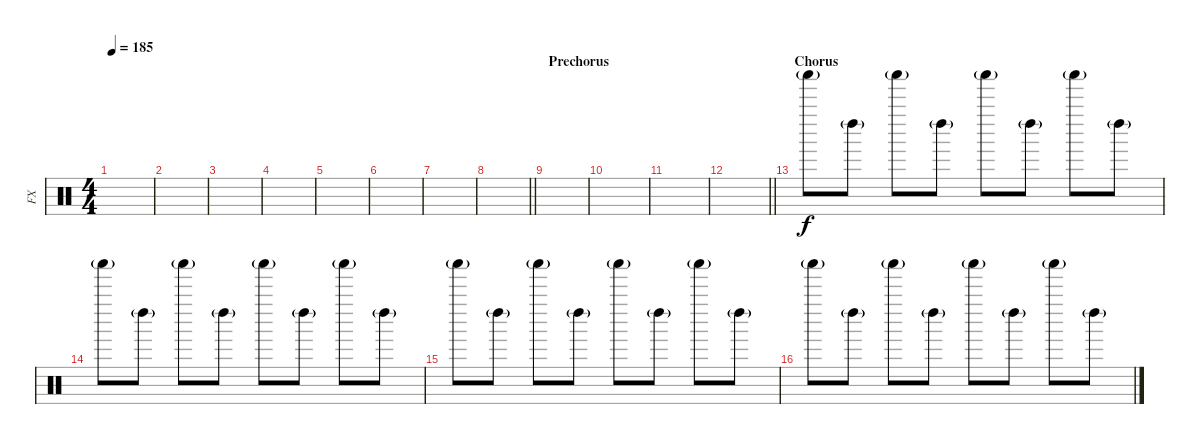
\track ("FX" "FX") {instrument percussion}
\staff {score}
\articulation defaults
\ts (4 4)
\tempo 185
\clef neutral
\ks c
|
|
|
|
|
|
|
\barLineRight lightlight
|
\section ("" "Prechorus")
|
|
|
\barLineRight lightlight
|
\section ("" "Chorus")
"Shaker (hit)"{g}.8 "Left Maraca (hit)"{g}.8 "Shaker (hit)"{g}.8 "Left Maraca (hit)"{g}.8 "Shaker (hit)"{g}.8 "Left Maraca (hit)"{g}.8 "Shaker (hit)"{g}.8 "Left Maraca (hit)"{g}.8 |
"Shaker (hit)"{g}.8 "Left Maraca (hit)"{g}.8 "Shaker (hit)"{g}.8 "Left Maraca (hit)"{g}.8 "Shaker (hit)"{g}.8 "Left Maraca (hit)"{g}.8 "Shaker (hit)"{g}.8 "Left Maraca (hit)"{g}.8 |
"Shaker (hit)"{g}.8 "Left Maraca (hit)"{g}.8 "Shaker (hit)"{g}.8 "Left Maraca (hit)"{g}.8 "Shaker (hit)"{g}.8 "Left Maraca (hit)"{g}.8 "Shaker (hit)"{g}.8 "Left Maraca (hit)"{g}.8 |
"Shaker (hit)"{g}.8 "Left Maraca (hit)"{g}.8 "Shaker (hit)"{g}.8 "Left Maraca (hit)"{g}.8 "Shaker (hit)"{g}.8 "Left Maraca (hit)"{g}.8 "Shaker (hit)"{g}.8 "Left Maraca (hit)"{g}.8
